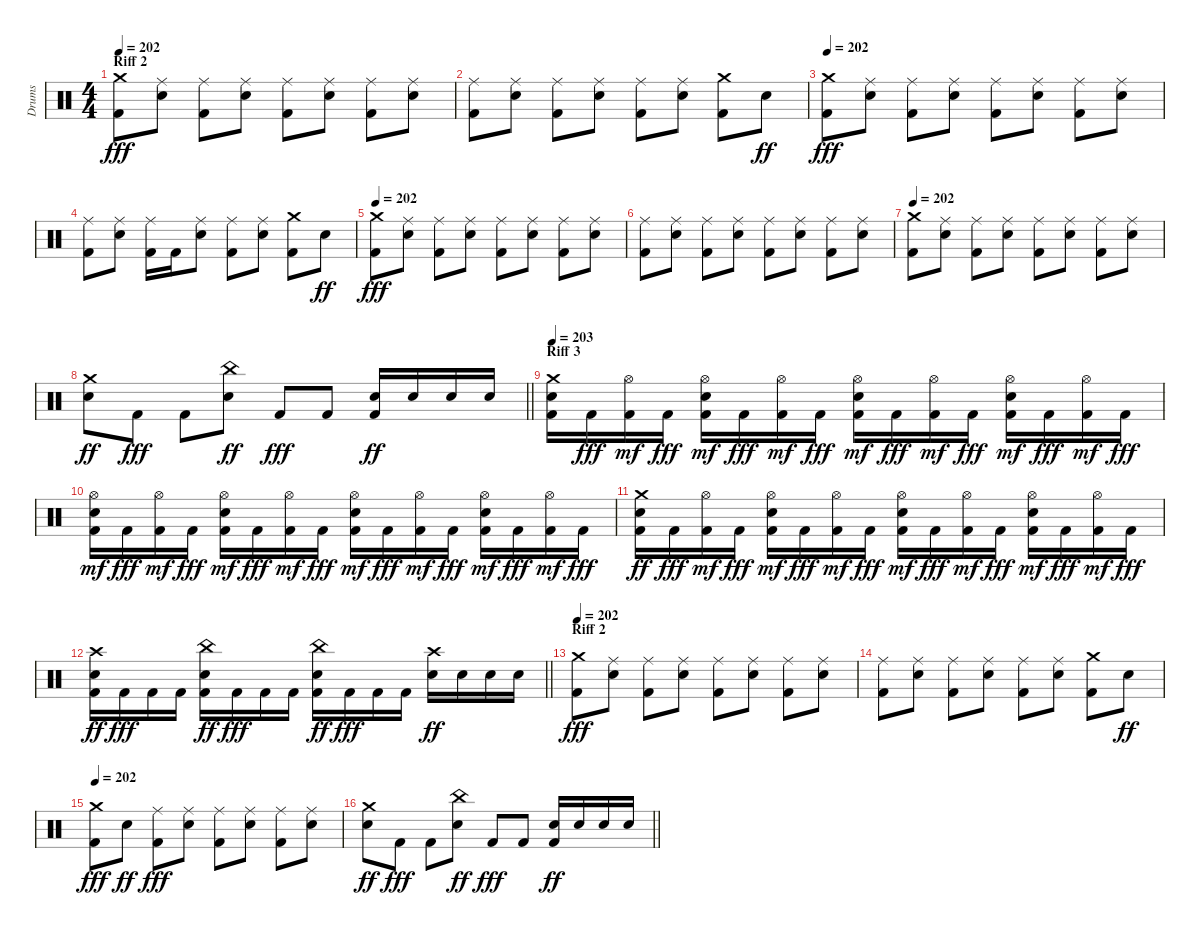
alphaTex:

\track ("Drums" "Drums") {instrument percussion}
\staff {score}
\articulation defaults
\ts (4 4)
\section ("" "Riff 2")
\tempo 198
\tempo 202
\clef neutral
\ks c
("Kick (hit) 2" "Crash medium (hit)").8{dy fff} ("Snare (hit) 2" "Ride (middle)").8 ("Kick (hit) 2" "Ride (middle)").8 ("Snare (hit) 2" "Ride (middle)").8 ("Kick (hit) 2" "Ride (middle)").8 ("Snare (hit) 2" "Ride (middle)").8 ("Kick (hit) 2" "Ride (middle)").8 ("Snare (hit) 2" "Ride (middle)").8 |
("Kick (hit) 2" "Ride (middle)").8 ("Snare (hit) 2" "Ride (middle)").8 ("Kick (hit) 2" "Ride (middle)").8 ("Snare (hit) 2" "Ride (middle)").8 ("Kick (hit) 2" "Ride (middle)").8 ("Snare (hit) 2" "Ride (middle)").8 ("Kick (hit) 2" "Crash medium (hit)").8 "Snare (hit) 2".8{dy ff} |
\tempo 202
("Kick (hit) 2" "Crash medium (hit)").8{dy fff} ("Snare (hit) 2" "Ride (middle)").8 ("Kick (hit) 2" "Ride (middle)").8 ("Snare (hit) 2" "Ride (middle)").8 ("Kick (hit) 2" "Ride (middle)").8 ("Snare (hit) 2" "Ride (middle)").8 ("Kick (hit) 2" "Ride (middle)").8 ("Snare (hit) 2" "Ride (middle)").8 |
("Kick (hit) 2" "Ride (middle)").8 ("Snare (hit) 2" "Ride (middle)").8 ("Kick (hit) 2" "Ride (middle)").16 "Kick (hit) 2".16 ("Snare (hit) 2" "Ride (middle)").8 ("Kick (hit) 2" "Ride (middle)").8 ("Snare (hit) 2" "Ride (middle)").8 ("Kick (hit) 2" "Crash medium (hit)").8 "Snare (hit) 2".8{dy ff} |
\tempo 202
("Kick (hit) 2" "Crash medium (hit)").8{dy fff} ("Snare (hit) 2" "Ride (middle)").8 ("Kick (hit) 2" "Ride (middle)").8 ("Snare (hit) 2" "Ride (middle)").8 ("Kick (hit) 2" "Ride (middle)").8 ("Snare (hit) 2" "Ride (middle)").8 ("Kick (hit) 2" "Ride (middle)").8 ("Snare (hit) 2" "Ride (middle)").8 |
("Kick (hit) 2" "Ride (middle)").8 ("Snare (hit) 2" "Ride (middle)").8 ("Kick (hit) 2" "Ride (middle)").8 ("Snare (hit) 2" "Ride (middle)").8 ("Kick (hit) 2" "Ride (middle)").8 ("Snare (hit) 2" "Ride (middle)").8 ("Kick (hit) 2" "Ride (middle)").8 ("Snare (hit) 2" "Ride (middle)").8 |
\tempo 202
("Kick (hit) 2" "Crash medium (hit)").8 ("Snare (hit) 2" "Ride (middle)").8 ("Kick (hit) 2" "Ride (middle)").8 ("Snare (hit) 2" "Ride (middle)").8 ("Kick (hit) 2" "Ride (middle)").8 ("Snare (hit) 2" "Ride (middle)").8 ("Kick (hit) 2" "Ride (middle)").8 ("Snare (hit) 2" "Ride (middle)").8 |
\barLineRight lightlight
("Snare (hit) 2" "Crash medium (hit)").8{dy ff} "Kick (hit) 2".8{dy fff} "Kick (hit) 2".8 ("Snare (hit) 2" "China (hit)").8{dy ff} "Kick (hit) 2".8{dy fff} "Kick (hit) 2".8 ("Kick (hit) 2" "Snare (hit) 2").16{dy ff} "Snare (hit) 2".16 "Snare (hit) 2".16 "Snare (hit) 2".16 |
\section ("" "Riff 3")
\tempo 203
("Kick (hit) 2" "Snare (hit) 2" "Crash medium (hit)").16 "Kick (hit) 2".16{dy fff} ("Kick (hit) 2" "Hi-Hat (open)").16{dy mf} "Kick (hit) 2".16{dy fff} ("Kick (hit) 2" "Snare (hit) 2" "Hi-Hat (open)").16{dy mf} "Kick (hit) 2".16{dy fff} ("Kick (hit) 2" "Hi-Hat (open)").16{dy mf} "Kick (hit) 2".16{dy fff} ("Kick (hit) 2" "Snare (hit) 2" "Hi-Hat (open)").16{dy mf} "Kick (hit) 2".16{dy fff} ("Kick (hit) 2" "Hi-Hat (open)").16{dy mf} "Kick (hit) 2".16{dy fff} ("Kick (hit) 2" "Snare (hit) 2" "Hi-Hat (open)").16{dy mf} "Kick (hit) 2".16{dy fff} ("Kick (hit) 2" "Hi-Hat (open)").16{dy mf} "Kick (hit) 2".16{dy fff} |
("Kick (hit) 2" "Snare (hit) 2" "Hi-Hat (open)").16{dy mf} "Kick (hit) 2".16{dy fff} ("Kick (hit) 2" "Hi-Hat (open)").16{dy mf} "Kick (hit) 2".16{dy fff} ("Kick (hit) 2" "Snare (hit) 2" "Hi-Hat (open)").16{dy mf} "Kick (hit) 2".16{dy fff} ("Kick (hit) 2" "Hi-Hat (open)").16{dy mf} "Kick (hit) 2".16{dy fff} ("Kick (hit) 2" "Snare (hit) 2" "Hi-Hat (open)").16{dy mf} "Kick (hit) 2".16{dy fff} ("Kick (hit) 2" "Hi-Hat (open)").16{dy mf} "Kick (hit) 2".16{dy fff} ("Kick (hit) 2" "Snare (hit) 2" "Hi-Hat (open)").16{dy mf} "Kick (hit) 2".16{dy fff} ("Kick (hit) 2" "Hi-Hat (open)").16{dy mf} "Kick (hit) 2".16{dy fff} |
("Kick (hit) 2" "Snare (hit) 2" "Crash medium (hit)").16{dy ff} "Kick (hit) 2".16{dy fff} ("Kick (hit) 2" "Hi-Hat (open)").16{dy mf} "Kick (hit) 2".16{dy fff} ("Kick (hit) 2" "Snare (hit) 2" "Hi-Hat (open)").16{dy mf} "Kick (hit) 2".16{dy fff} ("Kick (hit) 2" "Hi-Hat (open)").16{dy mf} "Kick (hit) 2".16{dy fff} ("Kick (hit) 2" "Snare (hit) 2" "Hi-Hat (open)").16{dy mf} "Kick (hit) 2".16{dy fff} ("Kick (hit) 2" "Hi-Hat (open)").16{dy mf} "Kick (hit) 2".16{dy fff} ("Kick (hit) 2" "Snare (hit) 2" "Hi-Hat (open)").16{dy mf} "Kick (hit) 2".16{dy fff} ("Kick (hit) 2" "Hi-Hat (open)").16{dy mf} "Kick (hit) 2".16{dy fff} |
\barLineRight lightlight
("Kick (hit) 2" "Snare (hit) 2" "Crash high (hit)").16{dy ff} "Kick (hit) 2".16{dy fff} "Kick (hit) 2".16 "Kick (hit) 2".16 ("Kick (hit) 2" "Snare (hit) 2" "China (hit)").16{dy ff} "Kick (hit) 2".16{dy fff} "Kick (hit) 2".16 "Kick (hit) 2".16 ("Kick (hit) 2" "Snare (hit) 2" "China (hit)").16{dy ff} "Kick (hit) 2".16{dy fff} "Kick (hit) 2".16 "Kick (hit) 2".16 ("Snare (hit) 2" "Crash high (hit)").16{dy ff} "Snare (hit) 2".16 "Snare (hit) 2".16 "Snare (hit) 2".16 |
\section ("" "Riff 2")
\tempo 199
\tempo 202
("Kick (hit) 2" "Crash medium (hit)").8{dy fff} ("Snare (hit) 2" "Ride (middle)").8 ("Kick (hit) 2" "Ride (middle)").8 ("Snare (hit) 2" "Ride (middle)").8 ("Kick (hit) 2" "Ride (middle)").8 ("Snare (hit) 2" "Ride (middle)").8 ("Kick (hit) 2" "Ride (middle)").8 ("Snare (hit) 2" "Ride (middle)").8 |
("Kick (hit) 2" "Ride (middle)").8 ("Snare (hit) 2" "Ride (middle)").8 ("Kick (hit) 2" "Ride (middle)").8 ("Snare (hit) 2" "Ride (middle)").8 ("Kick (hit) 2" "Ride (middle)").8 ("Snare (hit) 2" "Ride (middle)").8 ("Kick (hit) 2" "Crash medium (hit)").8 "Snare (hit) 2".8{dy ff} |
\tempo 202
("Kick (hit) 2" "Crash medium (hit)").8{dy fff} "Snare (hit) 2".8{dy ff} ("Kick (hit) 2" "Ride (middle)").8{dy fff} ("Snare (hit) 2" "Ride (middle)").8 ("Kick (hit) 2" "Ride (middle)").8 ("Snare (hit) 2" "Ride (middle)").8 ("Kick (hit) 2" "Ride (middle)").8 ("Snare (hit) 2" "Ride (middle)").8 |
\barLineRight lightlight
("Snare (hit) 2" "Crash medium (hit)").8{dy ff} "Kick (hit) 2".8{dy fff} "Kick (hit) 2".8 ("Snare (hit) 2" "China (hit)").8{dy ff} "Kick (hit) 2".8{dy fff} "Kick (hit) 2".8 ("Kick (hit) 2" "Snare (hit) 2").16{dy ff} "Snare (hit) 2".16 "Snare (hit) 2".16 "Snare (hit) 2".16
